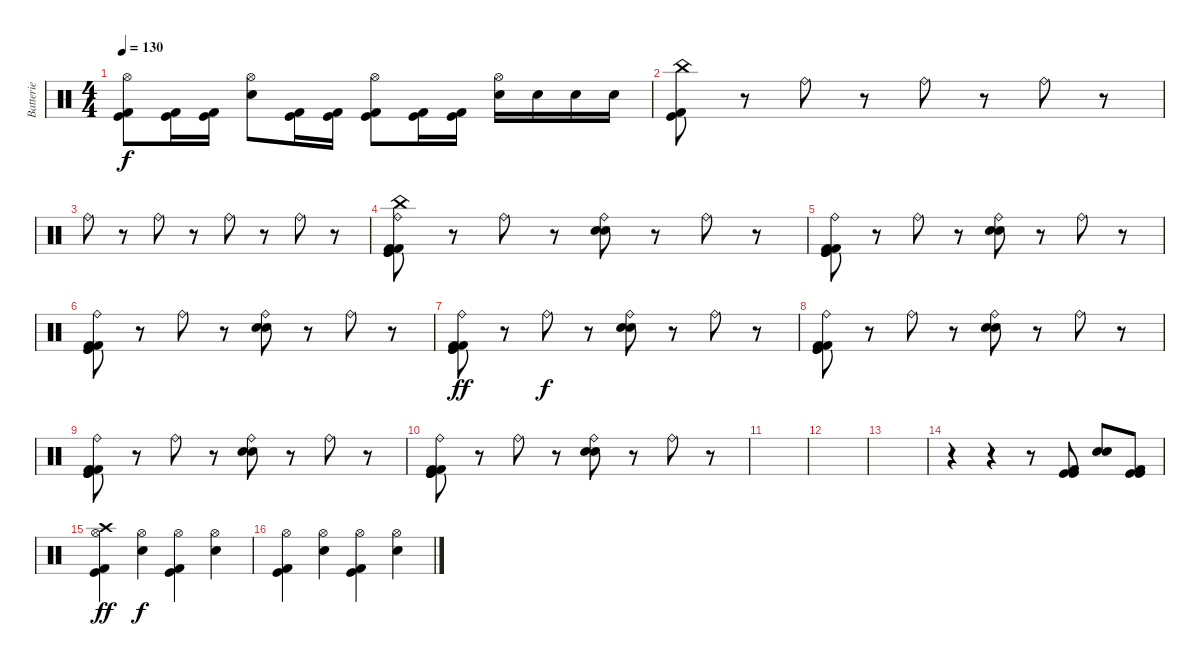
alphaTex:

\track ("Batterie" "Batterie") {instrument percussion}
\staff {score}
\articulation defaults
\ts (4 4)
\tempo 130
\clef neutral
\ks c
("Hi-Hat (open)" "Kick (hit) 2" "Kick (hit)").8{dy f} ("Kick (hit)" "Kick (hit) 2").16 ("Kick (hit)" "Kick (hit) 2").16 ("Hi-Hat (open)" "Electric Snare (hit)").8 ("Kick (hit)" "Kick (hit) 2").16 ("Kick (hit) 2" "Kick (hit)").16 ("Hi-Hat (open)" "Kick (hit)" "Kick (hit) 2").8 ("Kick (hit)" "Kick (hit) 2").16 ("Kick (hit) 2" "Kick (hit)").16 ("Hi-Hat (open)" "Electric Snare (hit)").16 "Electric Snare (hit)".16 "Electric Snare (hit)".16 "Electric Snare (hit)".16 |
("China (hit)" "Kick (hit) 2" "Kick (hit)").8 r.8 "Ride (bell)".8 r.8 "Ride (bell)".8 r.8 "Ride (bell)".8 r.8 |
"Ride (bell)".8 r.8 "Ride (bell)".8 r.8 "Ride (bell)".8 r.8 "Ride (bell)".8 r.8 |
("Ride (bell)" "China (hit)" "Kick (hit) 2" "Kick (hit)" "Kick (hit) 2" "Kick (hit)").8 r.8 "Ride (bell)".8 r.8 ("Ride (bell)" "Electric Snare (hit)" "Electric Snare (hit)").8 r.8 "Ride (bell)".8 r.8 |
("Ride (bell)" "Kick (hit) 2" "Kick (hit)" "Kick (hit) 2" "Kick (hit)").8 r.8 "Ride (bell)".8 r.8 ("Ride (bell)" "Electric Snare (hit)" "Electric Snare (hit)").8 r.8 "Ride (bell)".8 r.8 |
("Ride (bell)" "Kick (hit) 2" "Kick (hit)" "Kick (hit) 2" "Kick (hit)").8 r.8 "Ride (bell)".8 r.8 ("Ride (bell)" "Electric Snare (hit)" "Electric Snare (hit)").8 r.8 "Ride (bell)".8 r.8 |
("Ride (bell)" "Kick (hit) 2" "Kick (hit) 2" "Kick (hit)" "Kick (hit)").8{dy ff} r.8 "Ride (bell)".8{dy f} r.8 ("Ride (bell)" "Electric Snare (hit)" "Electric Snare (hit)").8 r.8 "Ride (bell)".8 r.8 |
("Ride (bell)" "Kick (hit) 2" "Kick (hit)" "Kick (hit) 2" "Kick (hit)").8 r.8 "Ride (bell)".8 r.8 ("Ride (bell)" "Electric Snare (hit)" "Electric Snare (hit)").8 r.8 "Ride (bell)".8 r.8 |
("Ride (bell)" "Kick (hit) 2" "Kick (hit)" "Kick (hit) 2" "Kick (hit)").8 r.8 "Ride (bell)".8 r.8 ("Ride (bell)" "Electric Snare (hit)" "Electric Snare (hit)").8 r.8 "Ride (bell)".8 r.8 |
("Ride (bell)" "Kick (hit) 2" "Kick (hit)" "Kick (hit) 2" "Kick (hit)").8 r.8 "Ride (bell)".8 r.8 ("Ride (bell)" "Electric Snare (hit)" "Electric Snare (hit)").8 r.8 "Ride (bell)".8 r.8 |
|
|
|
r.4 r.4 r.8 ("Kick (hit)" "Kick (hit) 2" "Kick (hit)").8 ("Electric Snare (hit)" "Electric Snare (hit)").8 ("Kick (hit)" "Kick (hit)" "Kick (hit) 2").8 |
("Hi-Hat (open)" "Crash high (hit)" "Kick (hit) 2" "Kick (hit)").4{dy ff} ("Hi-Hat (open)" "Electric Snare (hit)").4{dy f} ("Hi-Hat (open)" "Kick (hit)" "Kick (hit) 2").4 ("Hi-Hat (open)" "Electric Snare (hit)").4 |
("Hi-Hat (open)" "Kick (hit) 2" "Kick (hit)").4 ("Hi-Hat (open)" "Electric Snare (hit)").4 ("Hi-Hat (open)" "Kick (hit)" "Kick (hit) 2").4 ("Hi-Hat (open)" "Electric Snare (hit)").4
